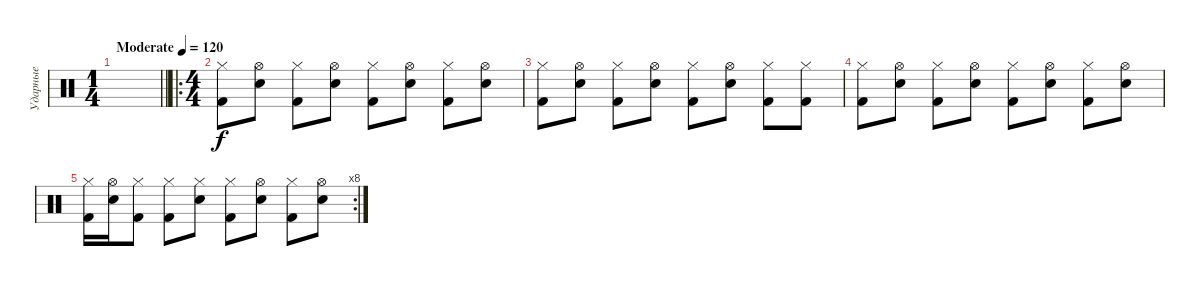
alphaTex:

\track ("Ударные" "Ударные") {instrument percussion}
\staff {score}
\articulation defaults
\ts (1 4)
\tempo (120 "Moderate")
\clef neutral
\barLineRight lightlight
\ks c
|
\ro
\ts (4 4)
("Hi-Hat (closed)" "Kick (hit) 2").8 ("Hi-Hat (open)" "Electric Snare (hit)").8 ("Hi-Hat (closed)" "Kick (hit) 2").8 ("Hi-Hat (open)" "Electric Snare (hit)").8 ("Hi-Hat (closed)" "Kick (hit) 2").8 ("Hi-Hat (open)" "Electric Snare (hit)").8 ("Hi-Hat (closed)" "Kick (hit) 2").8 ("Hi-Hat (open)" "Electric Snare (hit)").8 |
("Hi-Hat (closed)" "Kick (hit) 2").8 ("Hi-Hat (open)" "Electric Snare (hit)").8 ("Hi-Hat (closed)" "Kick (hit) 2").8 ("Hi-Hat (open)" "Electric Snare (hit)").8 ("Hi-Hat (closed)" "Kick (hit) 2").8 ("Hi-Hat (open)" "Electric Snare (hit)").8 ("Hi-Hat (closed)" "Kick (hit) 2").8 ("Hi-Hat (closed)" "Kick (hit) 2").8 |
("Hi-Hat (closed)" "Kick (hit) 2").8 ("Hi-Hat (open)" "Electric Snare (hit)").8 ("Hi-Hat (closed)" "Kick (hit) 2").8 ("Hi-Hat (open)" "Electric Snare (hit)").8 ("Hi-Hat (closed)" "Kick (hit) 2").8 ("Hi-Hat (open)" "Electric Snare (hit)").8 ("Hi-Hat (closed)" "Kick (hit) 2").8 ("Hi-Hat (open)" "Electric Snare (hit)").8 |
\rc 8
("Hi-Hat (closed)" "Kick (hit) 2").16 ("Hi-Hat (open)" "Electric Snare (hit)").16 ("Hi-Hat (closed)" "Kick (hit) 2").8 ("Hi-Hat (closed)" "Kick (hit) 2").8 ("Hi-Hat (closed)" "Electric Snare (hit)").8 ("Hi-Hat (closed)" "Kick (hit) 2").8 ("Hi-Hat (open)" "Electric Snare (hit)").8 ("Hi-Hat (closed)" "Kick (hit) 2").8 ("Hi-Hat (open)" "Electric Snare (hit)").8
